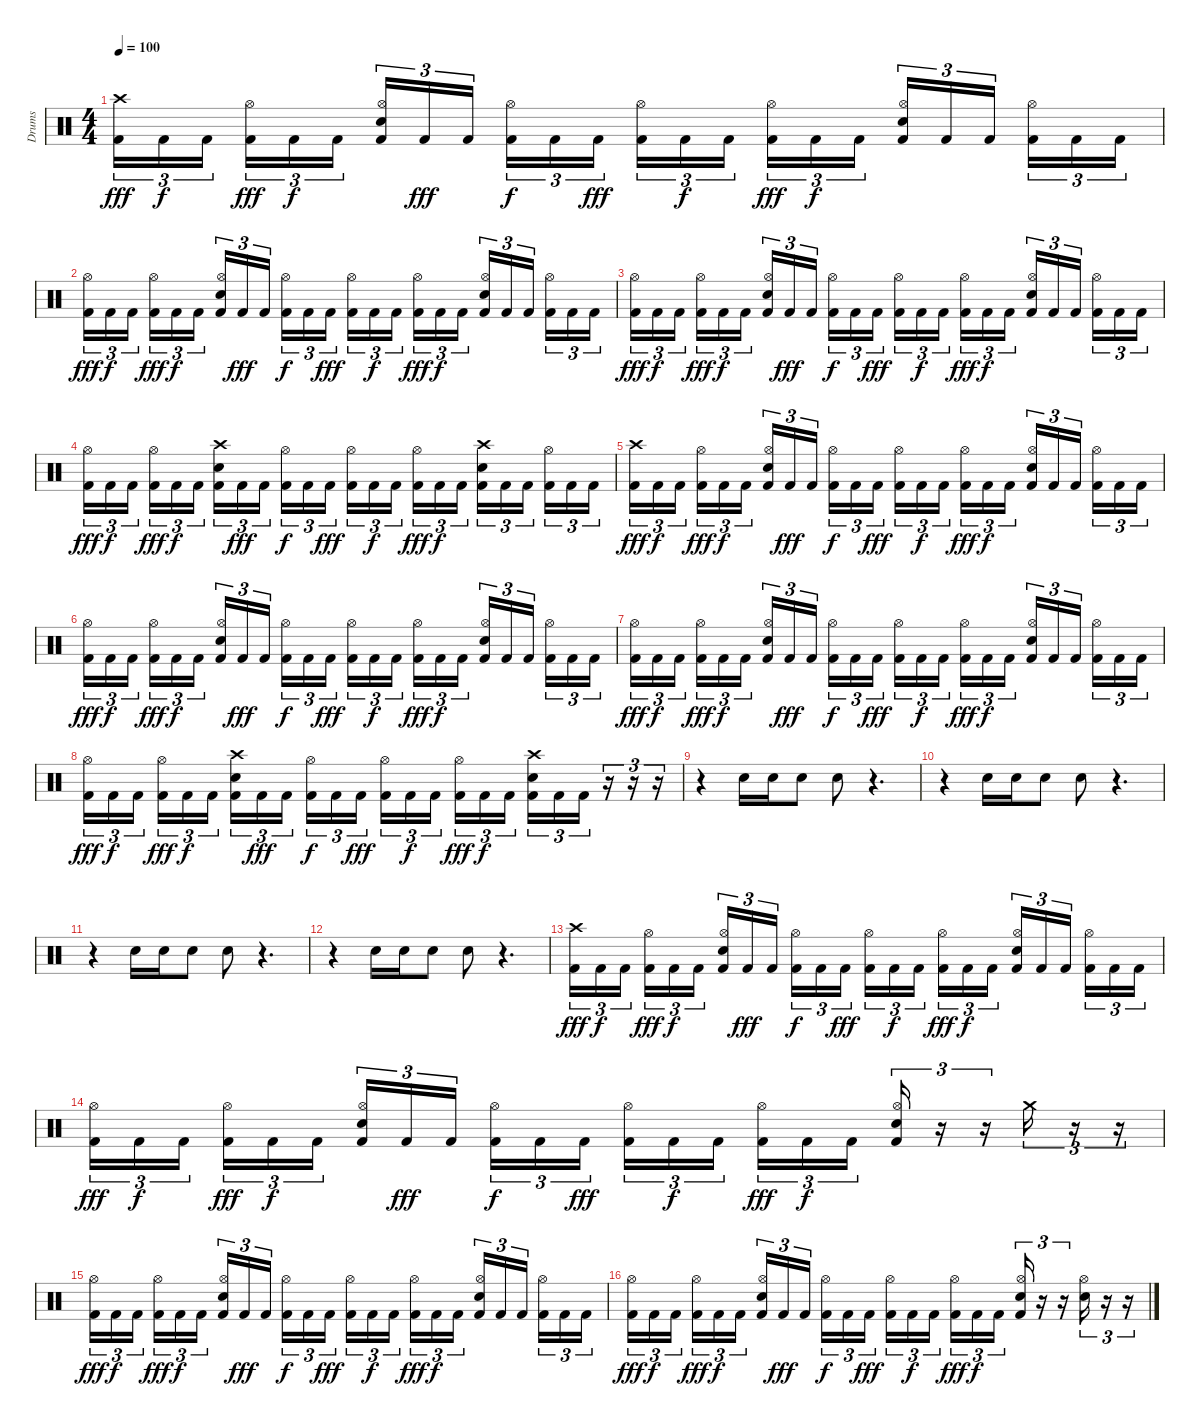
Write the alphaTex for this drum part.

\track ("Drums" "Drums") {instrument percussion}
\staff {score}
\articulation defaults
\ts (4 4)
\tempo 100
\clef neutral
\ks c
("Crash high (hit)" "Kick (hit) 2").16{tu (3 2) dy fff} "Kick (hit) 2".16{tu (3 2) dy f} "Kick (hit) 2".16{tu (3 2)} ("Hi-Hat (open)" "Kick (hit) 2").16{tu (3 2) dy fff} "Kick (hit) 2".16{tu (3 2) dy f} "Kick (hit) 2".16{tu (3 2)} ("Hi-Hat (open)" "Electric Snare (hit)" "Kick (hit) 2").16{tu (3 2)} "Kick (hit) 2".16{tu (3 2) dy fff} "Kick (hit) 2".16{tu (3 2)} ("Hi-Hat (open)" "Kick (hit) 2").16{tu (3 2) dy f} "Kick (hit) 2".16{tu (3 2)} "Kick (hit) 2".16{tu (3 2) dy fff} ("Hi-Hat (open)" "Kick (hit) 2").16{tu (3 2)} "Kick (hit) 2".16{tu (3 2) dy f} "Kick (hit) 2".16{tu (3 2)} ("Hi-Hat (open)" "Kick (hit) 2").16{tu (3 2) dy fff} "Kick (hit) 2".16{tu (3 2) dy f} "Kick (hit) 2".16{tu (3 2)} ("Hi-Hat (open)" "Electric Snare (hit)" "Kick (hit) 2").16{tu (3 2)} "Kick (hit) 2".16{tu (3 2)} "Kick (hit) 2".16{tu (3 2)} ("Hi-Hat (open)" "Kick (hit) 2").16{tu (3 2)} "Kick (hit) 2".16{tu (3 2)} "Kick (hit) 2".16{tu (3 2)} |
("Hi-Hat (open)" "Kick (hit) 2").16{tu (3 2) dy fff} "Kick (hit) 2".16{tu (3 2) dy f} "Kick (hit) 2".16{tu (3 2)} ("Hi-Hat (open)" "Kick (hit) 2").16{tu (3 2) dy fff} "Kick (hit) 2".16{tu (3 2) dy f} "Kick (hit) 2".16{tu (3 2)} ("Hi-Hat (open)" "Electric Snare (hit)" "Kick (hit) 2").16{tu (3 2)} "Kick (hit) 2".16{tu (3 2) dy fff} "Kick (hit) 2".16{tu (3 2)} ("Hi-Hat (open)" "Kick (hit) 2").16{tu (3 2) dy f} "Kick (hit) 2".16{tu (3 2)} "Kick (hit) 2".16{tu (3 2) dy fff} ("Hi-Hat (open)" "Kick (hit) 2").16{tu (3 2)} "Kick (hit) 2".16{tu (3 2) dy f} "Kick (hit) 2".16{tu (3 2)} ("Hi-Hat (open)" "Kick (hit) 2").16{tu (3 2) dy fff} "Kick (hit) 2".16{tu (3 2) dy f} "Kick (hit) 2".16{tu (3 2)} ("Hi-Hat (open)" "Electric Snare (hit)" "Kick (hit) 2").16{tu (3 2)} "Kick (hit) 2".16{tu (3 2)} "Kick (hit) 2".16{tu (3 2)} ("Hi-Hat (open)" "Kick (hit) 2").16{tu (3 2)} "Kick (hit) 2".16{tu (3 2)} "Kick (hit) 2".16{tu (3 2)} |
("Hi-Hat (open)" "Kick (hit) 2").16{tu (3 2) dy fff} "Kick (hit) 2".16{tu (3 2) dy f} "Kick (hit) 2".16{tu (3 2)} ("Hi-Hat (open)" "Kick (hit) 2").16{tu (3 2) dy fff} "Kick (hit) 2".16{tu (3 2) dy f} "Kick (hit) 2".16{tu (3 2)} ("Hi-Hat (open)" "Electric Snare (hit)" "Kick (hit) 2").16{tu (3 2)} "Kick (hit) 2".16{tu (3 2) dy fff} "Kick (hit) 2".16{tu (3 2)} ("Hi-Hat (open)" "Kick (hit) 2").16{tu (3 2) dy f} "Kick (hit) 2".16{tu (3 2)} "Kick (hit) 2".16{tu (3 2) dy fff} ("Hi-Hat (open)" "Kick (hit) 2").16{tu (3 2)} "Kick (hit) 2".16{tu (3 2) dy f} "Kick (hit) 2".16{tu (3 2)} ("Hi-Hat (open)" "Kick (hit) 2").16{tu (3 2) dy fff} "Kick (hit) 2".16{tu (3 2) dy f} "Kick (hit) 2".16{tu (3 2)} ("Hi-Hat (open)" "Electric Snare (hit)" "Kick (hit) 2").16{tu (3 2)} "Kick (hit) 2".16{tu (3 2)} "Kick (hit) 2".16{tu (3 2)} ("Hi-Hat (open)" "Kick (hit) 2").16{tu (3 2)} "Kick (hit) 2".16{tu (3 2)} "Kick (hit) 2".16{tu (3 2)} |
("Hi-Hat (open)" "Kick (hit) 2").16{tu (3 2) dy fff} "Kick (hit) 2".16{tu (3 2) dy f} "Kick (hit) 2".16{tu (3 2)} ("Hi-Hat (open)" "Kick (hit) 2").16{tu (3 2) dy fff} "Kick (hit) 2".16{tu (3 2) dy f} "Kick (hit) 2".16{tu (3 2)} ("Crash high (hit)" "Electric Snare (hit)" "Kick (hit) 2").16{tu (3 2)} "Kick (hit) 2".16{tu (3 2) dy fff} "Kick (hit) 2".16{tu (3 2)} ("Hi-Hat (open)" "Kick (hit) 2").16{tu (3 2) dy f} "Kick (hit) 2".16{tu (3 2)} "Kick (hit) 2".16{tu (3 2) dy fff} ("Hi-Hat (open)" "Kick (hit) 2").16{tu (3 2)} "Kick (hit) 2".16{tu (3 2) dy f} "Kick (hit) 2".16{tu (3 2)} ("Hi-Hat (open)" "Kick (hit) 2").16{tu (3 2) dy fff} "Kick (hit) 2".16{tu (3 2) dy f} "Kick (hit) 2".16{tu (3 2)} ("Crash high (hit)" "Electric Snare (hit)" "Kick (hit) 2").16{tu (3 2)} "Kick (hit) 2".16{tu (3 2)} "Kick (hit) 2".16{tu (3 2)} ("Hi-Hat (open)" "Kick (hit) 2").16{tu (3 2)} "Kick (hit) 2".16{tu (3 2)} "Kick (hit) 2".16{tu (3 2)} |
("Crash high (hit)" "Kick (hit) 2").16{tu (3 2) dy fff} "Kick (hit) 2".16{tu (3 2) dy f} "Kick (hit) 2".16{tu (3 2)} ("Hi-Hat (open)" "Kick (hit) 2").16{tu (3 2) dy fff} "Kick (hit) 2".16{tu (3 2) dy f} "Kick (hit) 2".16{tu (3 2)} ("Hi-Hat (open)" "Electric Snare (hit)" "Kick (hit) 2").16{tu (3 2)} "Kick (hit) 2".16{tu (3 2) dy fff} "Kick (hit) 2".16{tu (3 2)} ("Hi-Hat (open)" "Kick (hit) 2").16{tu (3 2) dy f} "Kick (hit) 2".16{tu (3 2)} "Kick (hit) 2".16{tu (3 2) dy fff} ("Hi-Hat (open)" "Kick (hit) 2").16{tu (3 2)} "Kick (hit) 2".16{tu (3 2) dy f} "Kick (hit) 2".16{tu (3 2)} ("Hi-Hat (open)" "Kick (hit) 2").16{tu (3 2) dy fff} "Kick (hit) 2".16{tu (3 2) dy f} "Kick (hit) 2".16{tu (3 2)} ("Hi-Hat (open)" "Electric Snare (hit)" "Kick (hit) 2").16{tu (3 2)} "Kick (hit) 2".16{tu (3 2)} "Kick (hit) 2".16{tu (3 2)} ("Hi-Hat (open)" "Kick (hit) 2").16{tu (3 2)} "Kick (hit) 2".16{tu (3 2)} "Kick (hit) 2".16{tu (3 2)} |
("Hi-Hat (open)" "Kick (hit) 2").16{tu (3 2) dy fff} "Kick (hit) 2".16{tu (3 2) dy f} "Kick (hit) 2".16{tu (3 2)} ("Hi-Hat (open)" "Kick (hit) 2").16{tu (3 2) dy fff} "Kick (hit) 2".16{tu (3 2) dy f} "Kick (hit) 2".16{tu (3 2)} ("Hi-Hat (open)" "Electric Snare (hit)" "Kick (hit) 2").16{tu (3 2)} "Kick (hit) 2".16{tu (3 2) dy fff} "Kick (hit) 2".16{tu (3 2)} ("Hi-Hat (open)" "Kick (hit) 2").16{tu (3 2) dy f} "Kick (hit) 2".16{tu (3 2)} "Kick (hit) 2".16{tu (3 2) dy fff} ("Hi-Hat (open)" "Kick (hit) 2").16{tu (3 2)} "Kick (hit) 2".16{tu (3 2) dy f} "Kick (hit) 2".16{tu (3 2)} ("Hi-Hat (open)" "Kick (hit) 2").16{tu (3 2) dy fff} "Kick (hit) 2".16{tu (3 2) dy f} "Kick (hit) 2".16{tu (3 2)} ("Hi-Hat (open)" "Electric Snare (hit)" "Kick (hit) 2").16{tu (3 2)} "Kick (hit) 2".16{tu (3 2)} "Kick (hit) 2".16{tu (3 2)} ("Hi-Hat (open)" "Kick (hit) 2").16{tu (3 2)} "Kick (hit) 2".16{tu (3 2)} "Kick (hit) 2".16{tu (3 2)} |
("Hi-Hat (open)" "Kick (hit) 2").16{tu (3 2) dy fff} "Kick (hit) 2".16{tu (3 2) dy f} "Kick (hit) 2".16{tu (3 2)} ("Hi-Hat (open)" "Kick (hit) 2").16{tu (3 2) dy fff} "Kick (hit) 2".16{tu (3 2) dy f} "Kick (hit) 2".16{tu (3 2)} ("Hi-Hat (open)" "Electric Snare (hit)" "Kick (hit) 2").16{tu (3 2)} "Kick (hit) 2".16{tu (3 2) dy fff} "Kick (hit) 2".16{tu (3 2)} ("Hi-Hat (open)" "Kick (hit) 2").16{tu (3 2) dy f} "Kick (hit) 2".16{tu (3 2)} "Kick (hit) 2".16{tu (3 2) dy fff} ("Hi-Hat (open)" "Kick (hit) 2").16{tu (3 2)} "Kick (hit) 2".16{tu (3 2) dy f} "Kick (hit) 2".16{tu (3 2)} ("Hi-Hat (open)" "Kick (hit) 2").16{tu (3 2) dy fff} "Kick (hit) 2".16{tu (3 2) dy f} "Kick (hit) 2".16{tu (3 2)} ("Hi-Hat (open)" "Electric Snare (hit)" "Kick (hit) 2").16{tu (3 2)} "Kick (hit) 2".16{tu (3 2)} "Kick (hit) 2".16{tu (3 2)} ("Hi-Hat (open)" "Kick (hit) 2").16{tu (3 2)} "Kick (hit) 2".16{tu (3 2)} "Kick (hit) 2".16{tu (3 2)} |
("Hi-Hat (open)" "Kick (hit) 2").16{tu (3 2) dy fff} "Kick (hit) 2".16{tu (3 2) dy f} "Kick (hit) 2".16{tu (3 2)} ("Hi-Hat (open)" "Kick (hit) 2").16{tu (3 2) dy fff} "Kick (hit) 2".16{tu (3 2) dy f} "Kick (hit) 2".16{tu (3 2)} ("Crash high (hit)" "Electric Snare (hit)" "Kick (hit) 2").16{tu (3 2)} "Kick (hit) 2".16{tu (3 2) dy fff} "Kick (hit) 2".16{tu (3 2)} ("Hi-Hat (open)" "Kick (hit) 2").16{tu (3 2) dy f} "Kick (hit) 2".16{tu (3 2)} "Kick (hit) 2".16{tu (3 2) dy fff} ("Hi-Hat (open)" "Kick (hit) 2").16{tu (3 2)} "Kick (hit) 2".16{tu (3 2) dy f} "Kick (hit) 2".16{tu (3 2)} ("Hi-Hat (open)" "Kick (hit) 2").16{tu (3 2) dy fff} "Kick (hit) 2".16{tu (3 2) dy f} "Kick (hit) 2".16{tu (3 2)} ("Crash high (hit)" "Electric Snare (hit)" "Kick (hit) 2").16{tu (3 2)} "Kick (hit) 2".16{tu (3 2)} "Kick (hit) 2".16{tu (3 2)} r.16{tu (3 2)} r.16{tu (3 2)} r.16{tu (3 2)} |
r.4 "Electric Snare (hit)".16 "Electric Snare (hit)".16 "Electric Snare (hit)".8 "Electric Snare (hit)".8 r.4{d} |
r.4 "Electric Snare (hit)".16 "Electric Snare (hit)".16 "Electric Snare (hit)".8 "Electric Snare (hit)".8 r.4{d} |
r.4 "Electric Snare (hit)".16 "Electric Snare (hit)".16 "Electric Snare (hit)".8 "Electric Snare (hit)".8 r.4{d} |
r.4 "Electric Snare (hit)".16 "Electric Snare (hit)".16 "Electric Snare (hit)".8 "Electric Snare (hit)".8 r.4{d} |
("Crash high (hit)" "Kick (hit) 2").16{tu (3 2) dy fff} "Kick (hit) 2".16{tu (3 2) dy f} "Kick (hit) 2".16{tu (3 2)} ("Hi-Hat (open)" "Kick (hit) 2").16{tu (3 2) dy fff} "Kick (hit) 2".16{tu (3 2) dy f} "Kick (hit) 2".16{tu (3 2)} ("Hi-Hat (open)" "Electric Snare (hit)" "Kick (hit) 2").16{tu (3 2)} "Kick (hit) 2".16{tu (3 2) dy fff} "Kick (hit) 2".16{tu (3 2)} ("Hi-Hat (open)" "Kick (hit) 2").16{tu (3 2) dy f} "Kick (hit) 2".16{tu (3 2)} "Kick (hit) 2".16{tu (3 2) dy fff} ("Hi-Hat (open)" "Kick (hit) 2").16{tu (3 2)} "Kick (hit) 2".16{tu (3 2) dy f} "Kick (hit) 2".16{tu (3 2)} ("Hi-Hat (open)" "Kick (hit) 2").16{tu (3 2) dy fff} "Kick (hit) 2".16{tu (3 2) dy f} "Kick (hit) 2".16{tu (3 2)} ("Hi-Hat (open)" "Electric Snare (hit)" "Kick (hit) 2").16{tu (3 2)} "Kick (hit) 2".16{tu (3 2)} "Kick (hit) 2".16{tu (3 2)} ("Hi-Hat (open)" "Kick (hit) 2").16{tu (3 2)} "Kick (hit) 2".16{tu (3 2)} "Kick (hit) 2".16{tu (3 2)} |
("Hi-Hat (open)" "Kick (hit) 2").16{tu (3 2) dy fff} "Kick (hit) 2".16{tu (3 2) dy f} "Kick (hit) 2".16{tu (3 2)} ("Hi-Hat (open)" "Kick (hit) 2").16{tu (3 2) dy fff} "Kick (hit) 2".16{tu (3 2) dy f} "Kick (hit) 2".16{tu (3 2)} ("Hi-Hat (open)" "Electric Snare (hit)" "Kick (hit) 2").16{tu (3 2)} "Kick (hit) 2".16{tu (3 2) dy fff} "Kick (hit) 2".16{tu (3 2)} ("Hi-Hat (open)" "Kick (hit) 2").16{tu (3 2) dy f} "Kick (hit) 2".16{tu (3 2)} "Kick (hit) 2".16{tu (3 2) dy fff} ("Hi-Hat (open)" "Kick (hit) 2").16{tu (3 2)} "Kick (hit) 2".16{tu (3 2) dy f} "Kick (hit) 2".16{tu (3 2)} ("Hi-Hat (open)" "Kick (hit) 2").16{tu (3 2) dy fff} "Kick (hit) 2".16{tu (3 2) dy f} "Kick (hit) 2".16{tu (3 2)} ("Hi-Hat (open)" "Electric Snare (hit)" "Kick (hit) 2").16{tu (3 2)} r.16{tu (3 2)} r.16{tu (3 2)} "Crash medium (hit)".16{tu (3 2)} r.16{tu (3 2)} r.16{tu (3 2)} |
("Hi-Hat (open)" "Kick (hit) 2").16{tu (3 2) dy fff} "Kick (hit) 2".16{tu (3 2) dy f} "Kick (hit) 2".16{tu (3 2)} ("Hi-Hat (open)" "Kick (hit) 2").16{tu (3 2) dy fff} "Kick (hit) 2".16{tu (3 2) dy f} "Kick (hit) 2".16{tu (3 2)} ("Hi-Hat (open)" "Electric Snare (hit)" "Kick (hit) 2").16{tu (3 2)} "Kick (hit) 2".16{tu (3 2) dy fff} "Kick (hit) 2".16{tu (3 2)} ("Hi-Hat (open)" "Kick (hit) 2").16{tu (3 2) dy f} "Kick (hit) 2".16{tu (3 2)} "Kick (hit) 2".16{tu (3 2) dy fff} ("Hi-Hat (open)" "Kick (hit) 2").16{tu (3 2)} "Kick (hit) 2".16{tu (3 2) dy f} "Kick (hit) 2".16{tu (3 2)} ("Hi-Hat (open)" "Kick (hit) 2").16{tu (3 2) dy fff} "Kick (hit) 2".16{tu (3 2) dy f} "Kick (hit) 2".16{tu (3 2)} ("Hi-Hat (open)" "Electric Snare (hit)" "Kick (hit) 2").16{tu (3 2)} "Kick (hit) 2".16{tu (3 2)} "Kick (hit) 2".16{tu (3 2)} ("Hi-Hat (open)" "Kick (hit) 2").16{tu (3 2)} "Kick (hit) 2".16{tu (3 2)} "Kick (hit) 2".16{tu (3 2)} |
("Hi-Hat (open)" "Kick (hit) 2").16{tu (3 2) dy fff} "Kick (hit) 2".16{tu (3 2) dy f} "Kick (hit) 2".16{tu (3 2)} ("Hi-Hat (open)" "Kick (hit) 2").16{tu (3 2) dy fff} "Kick (hit) 2".16{tu (3 2) dy f} "Kick (hit) 2".16{tu (3 2)} ("Hi-Hat (open)" "Electric Snare (hit)" "Kick (hit) 2").16{tu (3 2)} "Kick (hit) 2".16{tu (3 2) dy fff} "Kick (hit) 2".16{tu (3 2)} ("Hi-Hat (open)" "Kick (hit) 2").16{tu (3 2) dy f} "Kick (hit) 2".16{tu (3 2)} "Kick (hit) 2".16{tu (3 2) dy fff} ("Hi-Hat (open)" "Kick (hit) 2").16{tu (3 2)} "Kick (hit) 2".16{tu (3 2) dy f} "Kick (hit) 2".16{tu (3 2)} ("Hi-Hat (open)" "Kick (hit) 2").16{tu (3 2) dy fff} "Kick (hit) 2".16{tu (3 2) dy f} "Kick (hit) 2".16{tu (3 2)} ("Hi-Hat (open)" "Electric Snare (hit)" "Kick (hit) 2").16{tu (3 2)} r.16{tu (3 2)} r.16{tu (3 2)} ("Hi-Hat (open)" "Electric Snare (hit)").16{tu (3 2)} r.16{tu (3 2)} r.16{tu (3 2)}
